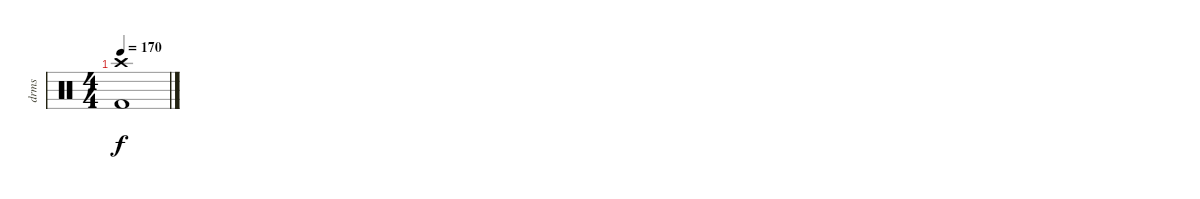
\track ("drms" "drms") {instrument percussion}
\staff {score}
\articulation defaults
\ts (4 4)
\tempo 170
\clef neutral
\ks c
("Crash high (hit)" "Kick (hit) 2").1{dy f}
